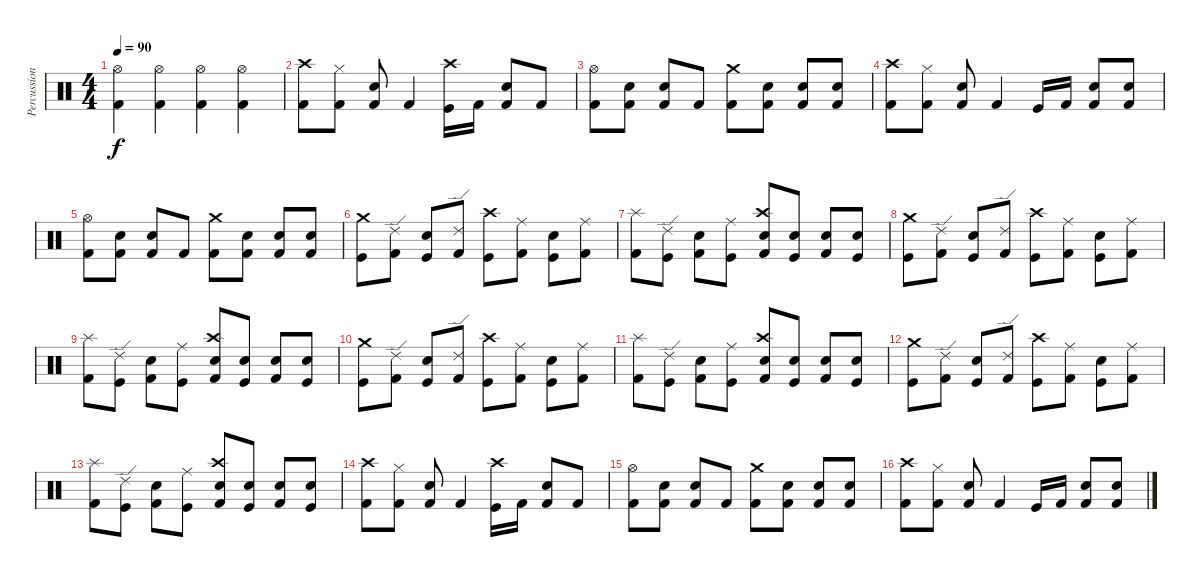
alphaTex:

\track ("Percussion" "Percussion") {instrument percussion}
\staff {score}
\articulation defaults
\ts (4 4)
\tempo 90
\clef neutral
\ks c
("Kick (hit) 2" "Hi-Hat (open)").4{dy f} ("Kick (hit) 2" "Hi-Hat (open)").4 ("Kick (hit) 2" "Hi-Hat (open)").4 ("Kick (hit) 2" "Hi-Hat (open)").4 |
("Crash high (hit)" "Kick (hit) 2").8 ("Hi-Hat (closed)" "Kick (hit) 2").8 ("Snare (hit) 2" "Kick (hit) 2").8 "Kick (hit) 2".4 ("Crash high (hit)" "Kick (hit)").16 "Kick (hit) 2".16 ("Snare (hit) 2" "Kick (hit) 2").8 "Kick (hit) 2".8 |
("Hi-Hat (open)" "Kick (hit) 2").8 ("Snare (hit) 2" "Kick (hit) 2").8 ("Snare (hit) 2" "Kick (hit) 2").8 "Kick (hit) 2".8 ("Crash medium (hit)" "Kick (hit) 2").8 ("Snare (hit) 2" "Kick (hit) 2").8 ("Snare (hit) 2" "Kick (hit) 2").8 ("Snare (hit) 2" "Kick (hit) 2").8 |
("Crash high (hit)" "Kick (hit) 2").8 ("Hi-Hat (closed)" "Kick (hit) 2").8 ("Snare (hit) 2" "Kick (hit) 2").8 "Kick (hit) 2".4 "Kick (hit)".16 "Kick (hit) 2".16 ("Snare (hit) 2" "Kick (hit) 2").8 ("Snare (hit) 2" "Kick (hit) 2").8 |
("Hi-Hat (open)" "Kick (hit) 2").8 ("Snare (hit) 2" "Kick (hit) 2").8 ("Snare (hit) 2" "Kick (hit) 2").8 "Kick (hit) 2".8 ("Crash medium (hit)" "Kick (hit) 2").8 ("Snare (hit) 2" "Kick (hit) 2").8 ("Snare (hit) 2" "Kick (hit) 2").8 ("Snare (hit) 2" "Kick (hit) 2").8 |
("Crash medium (hit)" "Kick (hit)").8 ("Ride (edge) 2" "Kick (hit) 2").8 ("Snare (hit) 2" "Kick (hit)").8 ("Ride (edge) 2" "Kick (hit) 2").8 ("Crash high (hit)" "Kick (hit)").8 ("Ride (middle)" "Kick (hit) 2").8 ("Electric Snare (hit)" "Kick (hit)").8 ("Ride (middle)" "Kick (hit) 2").8 |
("Splash (hit)" "Kick (hit) 2").8 ("Ride (edge) 2" "Kick (hit)").8 ("Snare (hit) 2" "Kick (hit) 2").8 ("Ride (middle)" "Kick (hit)").8 ("Crash high (hit)" "Snare (hit) 2" "Kick (hit) 2").8 ("Snare (hit) 2" "Kick (hit)").8 ("Electric Snare (hit)" "Kick (hit) 2").8 ("Electric Snare (hit)" "Kick (hit)").8 |
("Crash medium (hit)" "Kick (hit)").8 ("Ride (edge) 2" "Kick (hit) 2").8 ("Snare (hit) 2" "Kick (hit)").8 ("Ride (edge) 2" "Kick (hit) 2").8 ("Crash high (hit)" "Kick (hit)").8 ("Ride (middle)" "Kick (hit) 2").8 ("Electric Snare (hit)" "Kick (hit)").8 ("Ride (middle)" "Kick (hit) 2").8 |
("Splash (hit)" "Kick (hit) 2").8 ("Ride (edge) 2" "Kick (hit)").8 ("Snare (hit) 2" "Kick (hit) 2").8 ("Ride (middle)" "Kick (hit)").8 ("Crash high (hit)" "Snare (hit) 2" "Kick (hit) 2").8 ("Electric Snare (hit)" "Kick (hit)").8 ("Electric Snare (hit)" "Kick (hit) 2").8 ("Electric Snare (hit)" "Kick (hit)").8 |
("Crash medium (hit)" "Kick (hit)").8 ("Ride (edge) 2" "Kick (hit) 2").8 ("Snare (hit) 2" "Kick (hit)").8 ("Ride (edge) 2" "Kick (hit) 2").8 ("Crash high (hit)" "Kick (hit)").8 ("Ride (middle)" "Kick (hit) 2").8 ("Electric Snare (hit)" "Kick (hit)").8 ("Ride (middle)" "Kick (hit) 2").8 |
("Splash (hit)" "Kick (hit) 2").8 ("Ride (edge) 2" "Kick (hit)").8 ("Snare (hit) 2" "Kick (hit) 2").8 ("Ride (middle)" "Kick (hit)").8 ("Crash high (hit)" "Snare (hit) 2" "Kick (hit) 2").8 ("Snare (hit) 2" "Kick (hit)").8 ("Electric Snare (hit)" "Kick (hit) 2").8 ("Electric Snare (hit)" "Kick (hit)").8 |
("Crash medium (hit)" "Kick (hit)").8 ("Ride (edge) 2" "Kick (hit) 2").8 ("Snare (hit) 2" "Kick (hit)").8 ("Ride (edge) 2" "Kick (hit) 2").8 ("Crash high (hit)" "Kick (hit)").8 ("Ride (middle)" "Kick (hit) 2").8 ("Electric Snare (hit)" "Kick (hit)").8 ("Ride (middle)" "Kick (hit) 2").8 |
("Splash (hit)" "Kick (hit) 2").8 ("Ride (edge) 2" "Kick (hit)").8 ("Snare (hit) 2" "Kick (hit) 2").8 ("Ride (middle)" "Kick (hit)").8 ("Crash high (hit)" "Snare (hit) 2" "Kick (hit) 2").8 ("Snare (hit) 2" "Kick (hit)").8 ("Snare (hit) 2" "Kick (hit) 2").8 ("Electric Snare (hit)" "Kick (hit)").8 |
("Crash high (hit)" "Kick (hit) 2").8 ("Hi-Hat (closed)" "Kick (hit) 2").8 ("Snare (hit) 2" "Kick (hit) 2").8 "Kick (hit) 2".4 ("Crash high (hit)" "Kick (hit)").16 "Kick (hit) 2".16 ("Snare (hit) 2" "Kick (hit) 2").8 "Kick (hit) 2".8 |
("Hi-Hat (open)" "Kick (hit) 2").8 ("Snare (hit) 2" "Kick (hit) 2").8 ("Snare (hit) 2" "Kick (hit) 2").8 "Kick (hit) 2".8 ("Crash medium (hit)" "Kick (hit) 2").8 ("Snare (hit) 2" "Kick (hit) 2").8 ("Snare (hit) 2" "Kick (hit) 2").8 ("Snare (hit) 2" "Kick (hit) 2").8 |
("Crash high (hit)" "Kick (hit) 2").8 ("Hi-Hat (closed)" "Kick (hit) 2").8 ("Snare (hit) 2" "Kick (hit) 2").8 "Kick (hit) 2".4 "Kick (hit)".16 "Kick (hit) 2".16 ("Snare (hit) 2" "Kick (hit) 2").8 ("Snare (hit) 2" "Kick (hit) 2").8
